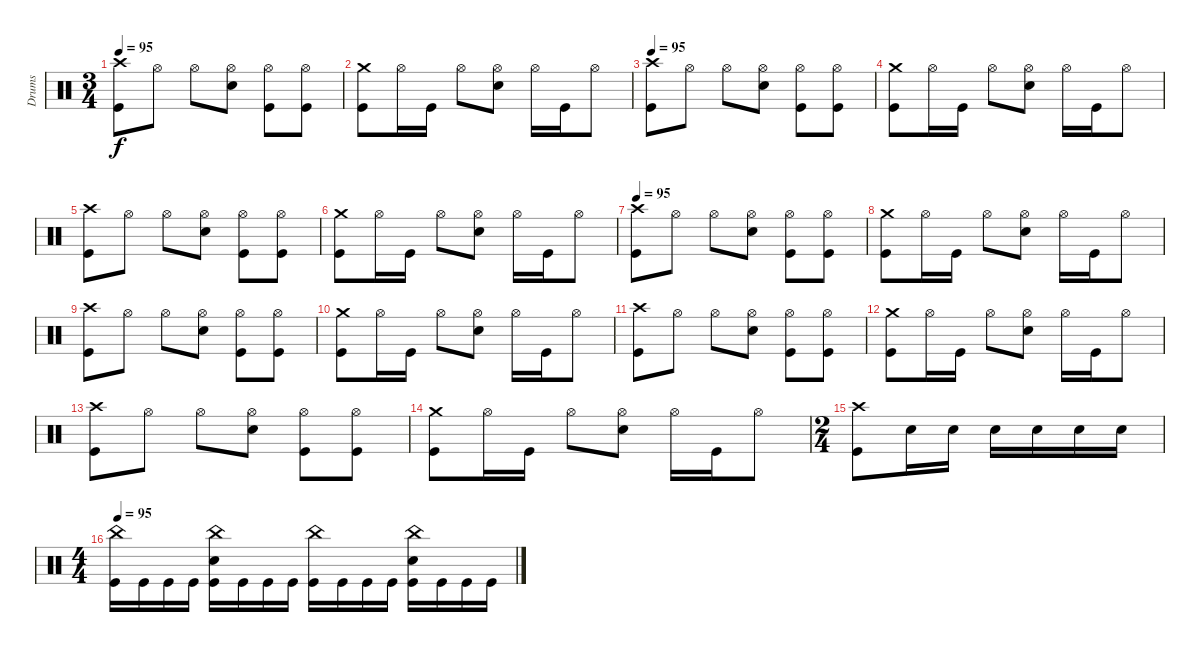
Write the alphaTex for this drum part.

\track ("Drums" "Drums") {instrument percussion}
\staff {score}
\articulation defaults
\ts (3 4)
\tempo 95
\clef neutral
\ks c
("Crash high (hit)" "Kick (hit)").8{dy f} "Hi-Hat (open)".8 "Hi-Hat (open)".8 ("Hi-Hat (open)" "Electric Snare (hit)").8 ("Hi-Hat (open)" "Kick (hit)").8 ("Hi-Hat (open)" "Kick (hit)").8 |
("Crash medium (hit)" "Kick (hit)").8 "Hi-Hat (open)".16 "Kick (hit)".16 "Hi-Hat (open)".8 ("Hi-Hat (open)" "Electric Snare (hit)").8 "Hi-Hat (open)".16 "Kick (hit)".16 "Hi-Hat (open)".8 |
\tempo 95
("Crash high (hit)" "Kick (hit)").8 "Hi-Hat (open)".8 "Hi-Hat (open)".8 ("Hi-Hat (open)" "Electric Snare (hit)").8 ("Hi-Hat (open)" "Kick (hit)").8 ("Hi-Hat (open)" "Kick (hit)").8 |
("Crash medium (hit)" "Kick (hit)").8 "Hi-Hat (open)".16 "Kick (hit)".16 "Hi-Hat (open)".8 ("Hi-Hat (open)" "Electric Snare (hit)").8 "Hi-Hat (open)".16 "Kick (hit)".16 "Hi-Hat (open)".8 |
("Crash high (hit)" "Kick (hit)").8 "Hi-Hat (open)".8 "Hi-Hat (open)".8 ("Hi-Hat (open)" "Electric Snare (hit)").8 ("Hi-Hat (open)" "Kick (hit)").8 ("Hi-Hat (open)" "Kick (hit)").8 |
("Crash medium (hit)" "Kick (hit)").8 "Hi-Hat (open)".16 "Kick (hit)".16 "Hi-Hat (open)".8 ("Hi-Hat (open)" "Electric Snare (hit)").8 "Hi-Hat (open)".16 "Kick (hit)".16 "Hi-Hat (open)".8 |
\tempo 95
("Crash high (hit)" "Kick (hit)").8 "Hi-Hat (open)".8 "Hi-Hat (open)".8 ("Hi-Hat (open)" "Electric Snare (hit)").8 ("Hi-Hat (open)" "Kick (hit)").8 ("Hi-Hat (open)" "Kick (hit)").8 |
("Crash medium (hit)" "Kick (hit)").8 "Hi-Hat (open)".16 "Kick (hit)".16 "Hi-Hat (open)".8 ("Hi-Hat (open)" "Electric Snare (hit)").8 "Hi-Hat (open)".16 "Kick (hit)".16 "Hi-Hat (open)".8 |
("Crash high (hit)" "Kick (hit)").8 "Hi-Hat (open)".8 "Hi-Hat (open)".8 ("Hi-Hat (open)" "Electric Snare (hit)").8 ("Hi-Hat (open)" "Kick (hit)").8 ("Hi-Hat (open)" "Kick (hit)").8 |
("Crash medium (hit)" "Kick (hit)").8 "Hi-Hat (open)".16 "Kick (hit)".16 "Hi-Hat (open)".8 ("Hi-Hat (open)" "Electric Snare (hit)").8 "Hi-Hat (open)".16 "Kick (hit)".16 "Hi-Hat (open)".8 |
("Crash high (hit)" "Kick (hit)").8 "Hi-Hat (open)".8 "Hi-Hat (open)".8 ("Hi-Hat (open)" "Electric Snare (hit)").8 ("Hi-Hat (open)" "Kick (hit)").8 ("Hi-Hat (open)" "Kick (hit)").8 |
("Crash medium (hit)" "Kick (hit)").8 "Hi-Hat (open)".16 "Kick (hit)".16 "Hi-Hat (open)".8 ("Hi-Hat (open)" "Electric Snare (hit)").8 "Hi-Hat (open)".16 "Kick (hit)".16 "Hi-Hat (open)".8 |
("Crash high (hit)" "Kick (hit)").8 "Hi-Hat (open)".8 "Hi-Hat (open)".8 ("Hi-Hat (open)" "Electric Snare (hit)").8 ("Hi-Hat (open)" "Kick (hit)").8 ("Hi-Hat (open)" "Kick (hit)").8 |
("Crash medium (hit)" "Kick (hit)").8 "Hi-Hat (open)".16 "Kick (hit)".16 "Hi-Hat (open)".8 ("Hi-Hat (open)" "Electric Snare (hit)").8 "Hi-Hat (open)".16 "Kick (hit)".16 "Hi-Hat (open)".8 |
\ts (2 4)
("Crash high (hit)" "Kick (hit)").8 "Electric Snare (hit)".16 "Electric Snare (hit)".16 "Electric Snare (hit)".16 "Electric Snare (hit)".16 "Electric Snare (hit)".16 "Electric Snare (hit)".16 |
\ts (4 4)
\tempo 95
("China (hit)" "Kick (hit)").16 "Kick (hit)".16 "Kick (hit)".16 "Kick (hit)".16 ("China (hit)" "Electric Snare (hit)" "Kick (hit)").16 "Kick (hit)".16 "Kick (hit)".16 "Kick (hit)".16 ("China (hit)" "Kick (hit)").16 "Kick (hit)".16 "Kick (hit)".16 "Kick (hit)".16 ("China (hit)" "Electric Snare (hit)" "Kick (hit)").16 "Kick (hit)".16 "Kick (hit)".16 "Kick (hit)".16
